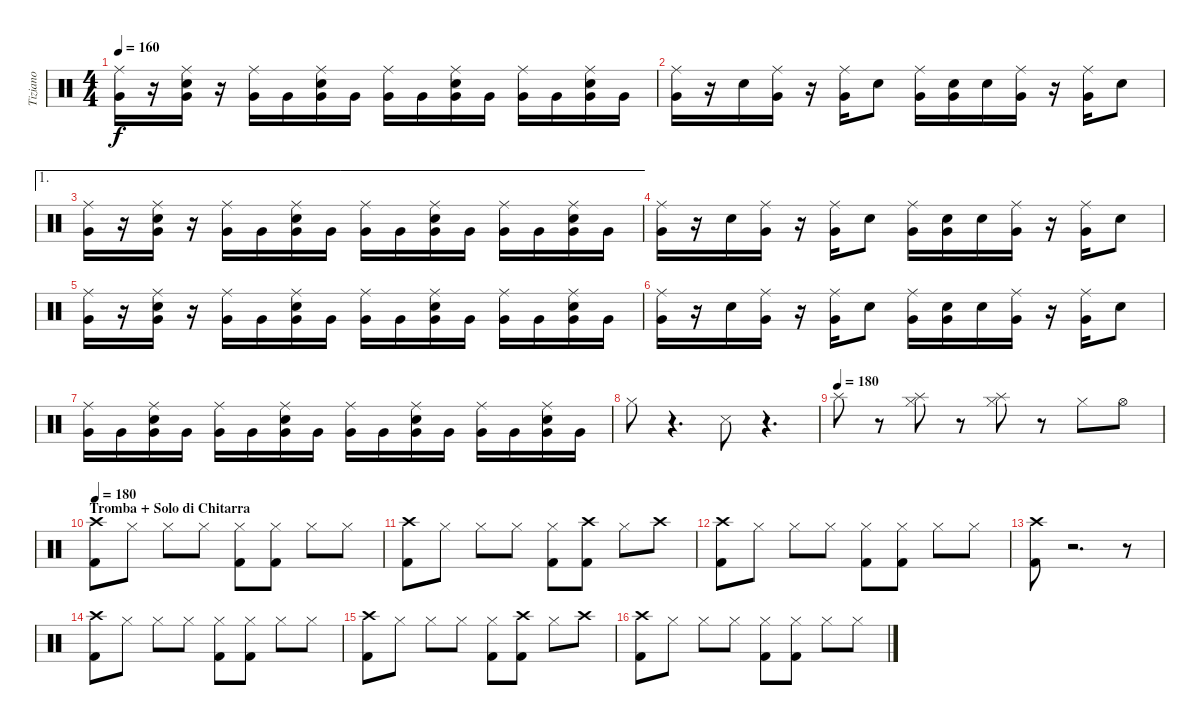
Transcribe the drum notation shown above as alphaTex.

\track ("Tiziano" "Tiziano") {instrument percussion}
\staff {score}
\articulation defaults
\ts (4 4)
\tempo 160
\clef neutral
\ks c
("Very Low Tom (hit)" "Ride (middle)").16{dy f} r.16 ("Very Low Tom (hit)" "Snare (hit) 2" "Ride (middle)").16 r.16 ("Very Low Tom (hit)" "Ride (middle)").16 "Very Low Tom (hit)".16 ("Very Low Tom (hit)" "Snare (hit) 2" "Ride (middle)").16 "Very Low Tom (hit)".16 ("Very Low Tom (hit)" "Ride (middle)").16 "Very Low Tom (hit)".16 ("Very Low Tom (hit)" "Snare (hit) 2" "Ride (middle)").16 "Very Low Tom (hit)".16 ("Very Low Tom (hit)" "Ride (middle)").16 "Very Low Tom (hit)".16 ("Very Low Tom (hit)" "Snare (hit) 2" "Ride (middle)").16 "Very Low Tom (hit)".16 |
("Very Low Tom (hit)" "Ride (middle)").16 r.16 "Snare (hit) 2".16 ("Very Low Tom (hit)" "Ride (middle)").16 r.16 ("Very Low Tom (hit)" "Ride (middle)").16 "Snare (hit) 2".8 ("Very Low Tom (hit)" "Ride (middle)").16 ("Very Low Tom (hit)" "Snare (hit)").16 "Snare (hit) 2".16 ("Very Low Tom (hit)" "Ride (middle)").16 r.16 ("Very Low Tom (hit)" "Ride (middle)").16 "Snare (hit) 2".8 |
\ae 1
("Very Low Tom (hit)" "Ride (middle)").16 r.16 ("Very Low Tom (hit)" "Snare (hit) 2" "Ride (middle)").16 r.16 ("Very Low Tom (hit)" "Ride (middle)").16 "Very Low Tom (hit)".16 ("Very Low Tom (hit)" "Snare (hit) 2" "Ride (middle)").16 "Very Low Tom (hit)".16 ("Very Low Tom (hit)" "Ride (middle)").16 "Very Low Tom (hit)".16 ("Very Low Tom (hit)" "Snare (hit) 2" "Ride (middle)").16 "Very Low Tom (hit)".16 ("Very Low Tom (hit)" "Ride (middle)").16 "Very Low Tom (hit)".16 ("Very Low Tom (hit)" "Snare (hit) 2" "Ride (middle)").16 "Very Low Tom (hit)".16 |
("Very Low Tom (hit)" "Ride (middle)").16 r.16 "Snare (hit) 2".16 ("Very Low Tom (hit)" "Ride (middle)").16 r.16 ("Very Low Tom (hit)" "Ride (middle)").16 "Snare (hit) 2".8 ("Very Low Tom (hit)" "Ride (middle)").16 ("Very Low Tom (hit)" "Snare (hit)").16 "Snare (hit) 2".16 ("Very Low Tom (hit)" "Ride (middle)").16 r.16 ("Very Low Tom (hit)" "Ride (middle)").16 "Snare (hit) 2".8 |
("Very Low Tom (hit)" "Ride (middle)").16 r.16 ("Very Low Tom (hit)" "Snare (hit) 2" "Ride (middle)").16 r.16 ("Very Low Tom (hit)" "Ride (middle)").16 "Very Low Tom (hit)".16 ("Very Low Tom (hit)" "Snare (hit) 2" "Ride (middle)").16 "Very Low Tom (hit)".16 ("Very Low Tom (hit)" "Ride (middle)").16 "Very Low Tom (hit)".16 ("Very Low Tom (hit)" "Snare (hit) 2" "Ride (middle)").16 "Very Low Tom (hit)".16 ("Very Low Tom (hit)" "Ride (middle)").16 "Very Low Tom (hit)".16 ("Very Low Tom (hit)" "Snare (hit) 2" "Ride (middle)").16 "Very Low Tom (hit)".16 |
("Very Low Tom (hit)" "Ride (middle)").16 r.16 "Snare (hit) 2".16 ("Very Low Tom (hit)" "Ride (middle)").16 r.16 ("Very Low Tom (hit)" "Ride (middle)").16 "Snare (hit) 2".8 ("Very Low Tom (hit)" "Ride (middle)").16 ("Very Low Tom (hit)" "Snare (hit)").16 "Snare (hit) 2".16 ("Very Low Tom (hit)" "Ride (middle)").16 r.16 ("Very Low Tom (hit)" "Ride (middle)").16 "Snare (hit) 2".8 |
("Very Low Tom (hit)" "Ride (middle)").16 "Very Low Tom (hit)".16 ("Very Low Tom (hit)" "Snare (hit) 2" "Ride (middle)").16 "Very Low Tom (hit)".16 ("Very Low Tom (hit)" "Ride (middle)").16 "Very Low Tom (hit)".16 ("Very Low Tom (hit)" "Snare (hit) 2" "Ride (middle)").16 "Very Low Tom (hit)".16 ("Very Low Tom (hit)" "Ride (middle)").16 "Very Low Tom (hit)".16 ("Very Low Tom (hit)" "Snare (hit) 2" "Ride (middle)").16 "Very Low Tom (hit)".16 ("Very Low Tom (hit)" "Ride (middle)").16 "Very Low Tom (hit)".16 ("Very Low Tom (hit)" "Snare (hit) 2" "Ride (middle)").16 "Very Low Tom (hit)".16 |
"Hi-Hat (closed)".8 r.4{d} "Snare (side stick) 3".8 r.4{d} |
\tempo 160
\tempo (180)
"Splash (hit)".8 r.8 ("Splash (hit)" "Hi-Hat (closed)").8 r.8 ("Splash (hit)" "Hi-Hat (closed)").8 r.8 "Hi-Hat (closed)".8 "Hi-Hat (open)".8 |
\section ("" "Tromba + Solo di Chitarra")
\tempo 180
("Crash high (hit)" "Kick (hit) 2").8 "Hi-Hat (closed)".8 "Hi-Hat (closed)".8 "Hi-Hat (closed)".8 ("Hi-Hat (closed)" "Kick (hit) 2").8 ("Hi-Hat (closed)" "Kick (hit) 2").8 "Hi-Hat (closed)".8 "Hi-Hat (closed)".8 |
("Crash high (hit)" "Kick (hit) 2").8 "Hi-Hat (closed)".8 "Hi-Hat (closed)".8 "Hi-Hat (closed)".8 ("Hi-Hat (closed)" "Kick (hit) 2").8 ("Crash high (hit)" "Kick (hit) 2").8 "Hi-Hat (closed)".8 "Crash high (hit)".8 |
("Crash high (hit)" "Kick (hit) 2").8 "Hi-Hat (closed)".8 "Hi-Hat (closed)".8 "Hi-Hat (closed)".8 ("Hi-Hat (closed)" "Kick (hit) 2").8 ("Hi-Hat (closed)" "Kick (hit) 2").8 "Hi-Hat (closed)".8 "Hi-Hat (closed)".8 |
("Crash high (hit)" "Kick (hit) 2").8 r.2{d} r.8 |
("Crash high (hit)" "Kick (hit) 2").8 "Hi-Hat (closed)".8 "Hi-Hat (closed)".8 "Hi-Hat (closed)".8 ("Hi-Hat (closed)" "Kick (hit) 2").8 ("Hi-Hat (closed)" "Kick (hit) 2").8 "Hi-Hat (closed)".8 "Hi-Hat (closed)".8 |
("Crash high (hit)" "Kick (hit) 2").8 "Hi-Hat (closed)".8 "Hi-Hat (closed)".8 "Hi-Hat (closed)".8 ("Hi-Hat (closed)" "Kick (hit) 2").8 ("Crash high (hit)" "Kick (hit) 2").8 "Hi-Hat (closed)".8 "Crash high (hit)".8 |
("Crash high (hit)" "Kick (hit) 2").8 "Hi-Hat (closed)".8 "Hi-Hat (closed)".8 "Hi-Hat (closed)".8 ("Hi-Hat (closed)" "Kick (hit) 2").8 ("Hi-Hat (closed)" "Kick (hit) 2").8 "Hi-Hat (closed)".8 "Hi-Hat (closed)".8
